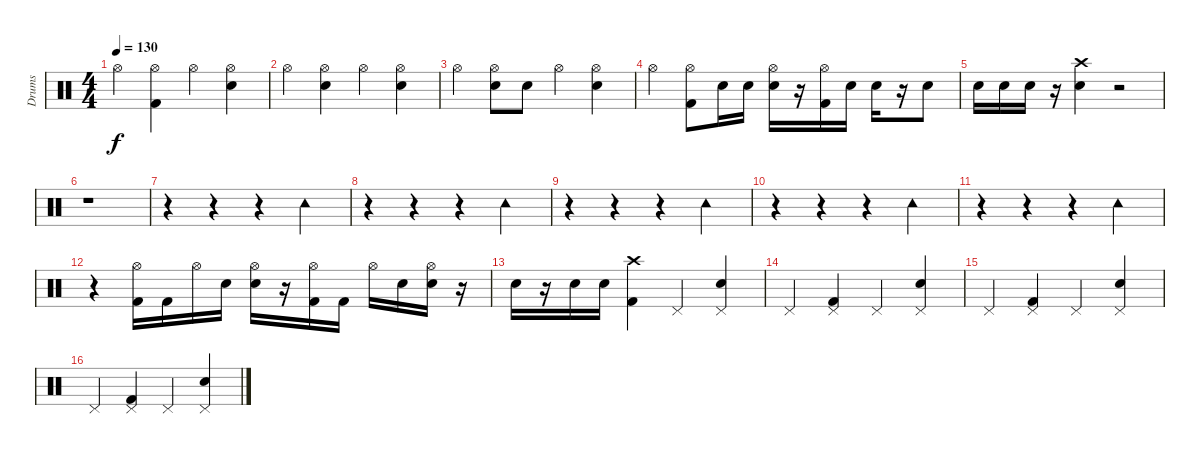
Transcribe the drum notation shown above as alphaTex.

\track ("Drums" "Drums") {instrument percussion}
\staff {score}
\articulation defaults
\ts (4 4)
\tempo 130
\clef neutral
\ks c "Hi-Hat (open)".4{dy f}
("Kick (hit) 2" "Hi-Hat (open)").4 "Hi-Hat (open)".4 ("Snare (hit) 2" "Hi-Hat (open)").4 |
"Hi-Hat (open)".4 ("Snare (hit) 2" "Hi-Hat (open)").4 "Hi-Hat (open)".4 ("Snare (hit) 2" "Hi-Hat (open)").4 |
"Hi-Hat (open)".4 ("Snare (hit) 2" "Hi-Hat (open)").8 "Snare (hit) 2".8 "Hi-Hat (open)".4 ("Snare (hit) 2" "Hi-Hat (open)").4 |
"Hi-Hat (open)".4 ("Kick (hit) 2" "Hi-Hat (open)").8 "Snare (hit) 2".16 "Snare (hit) 2".16 ("Snare (hit) 2" "Hi-Hat (open)").16 r.16 ("Kick (hit) 2" "Hi-Hat (open)").16 "Snare (hit) 2".16 "Snare (hit) 2".16 r.16 "Snare (hit) 2".8 |
"Snare (hit) 2".16 "Snare (hit) 2".16 "Snare (hit) 2".16 r.16 ("Snare (hit) 2" "Crash high (hit)").4 r.2 |
r.1 |
r.4 r.4 r.4 "Tambourine (hit)".4 |
r.4 r.4 r.4 "Tambourine (hit)".4 |
r.4 r.4 r.4 "Tambourine (hit)".4 |
r.4 r.4 r.4 "Tambourine (hit)".4 |
r.4 r.4 r.4 "Tambourine (hit)".4 |
r.4 ("Kick (hit) 2" "Hi-Hat (open)").16 "Kick (hit) 2".16 "Hi-Hat (open)".16 "Snare (hit) 2".16 ("Snare (hit) 2" "Hi-Hat (open)").16 r.16 ("Kick (hit) 2" "Hi-Hat (open)").16 "Kick (hit) 2".16 "Hi-Hat (open)".16 "Snare (hit) 2".16 ("Snare (hit) 2" "Hi-Hat (open)").16 r.16 |
"Snare (hit) 2".16 r.16 "Snare (hit) 2".16 "Snare (hit) 2".16 ("Kick (hit) 2" "Crash high (hit)").4 "Pedal Hi-Hat (hit)".4 ("Snare (hit) 2" "Pedal Hi-Hat (hit)").4 |
"Pedal Hi-Hat (hit)".4 ("Kick (hit) 2" "Pedal Hi-Hat (hit)").4 "Pedal Hi-Hat (hit)".4 ("Snare (hit) 2" "Pedal Hi-Hat (hit)").4 |
"Pedal Hi-Hat (hit)".4 ("Kick (hit) 2" "Pedal Hi-Hat (hit)").4 "Pedal Hi-Hat (hit)".4 ("Snare (hit) 2" "Pedal Hi-Hat (hit)").4 |
"Pedal Hi-Hat (hit)".4 ("Kick (hit) 2" "Pedal Hi-Hat (hit)").4 "Pedal Hi-Hat (hit)".4 ("Snare (hit) 2" "Pedal Hi-Hat (hit)").4
